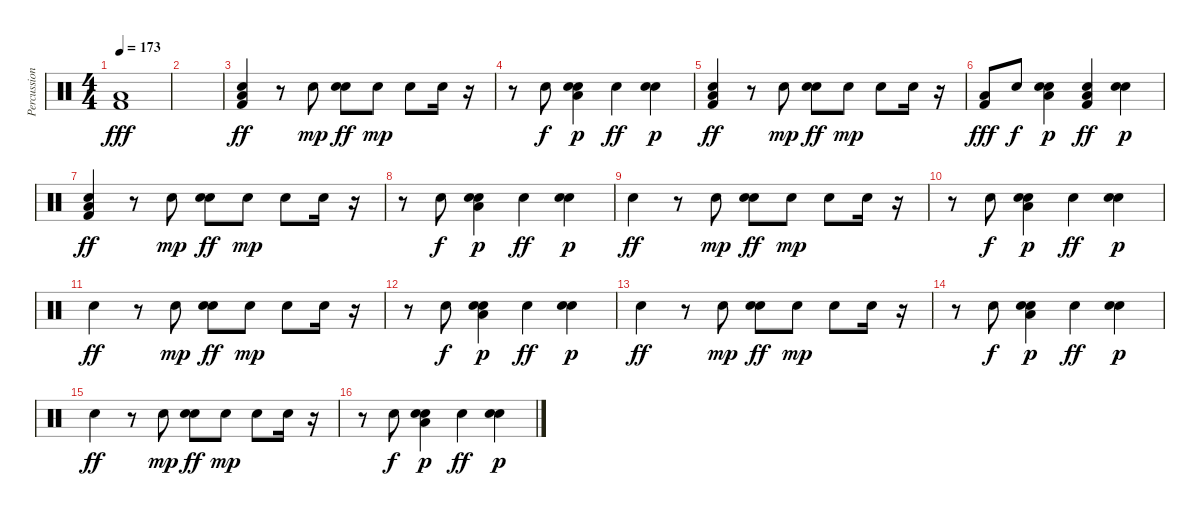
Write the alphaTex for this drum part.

\track ("Percussion" "Percussion") {instrument percussion}
\staff {score}
\articulation defaults
\ts (4 4)
\tempo 173
\clef neutral
\ks c
("Kick (hit) 2" "Low Tom (hit)").1{dy fff} |
|
("Kick (hit) 2" "Low Tom (hit)" "Hand Clap (hit)").4{dy ff} r.8 "Hand Clap (hit)".8{dy mp} ("Snare (hit) 2" "Hand Clap (hit)").8{dy ff} "Hand Clap (hit)".8{dy mp} "Hand Clap (hit)".8 "Hand Clap (hit)".16 r.16 |
r.8 "Hand Clap (hit)".8{dy f} ("Hand Clap (hit)" "Snare (hit) 2" "Low Floor Tom (hit)").4{dy p} "Hand Clap (hit)".4{dy ff} ("Snare (hit) 2" "Hand Clap (hit)").4{dy p} |
("Kick (hit) 2" "Low Tom (hit)" "Hand Clap (hit)").4{dy ff} r.8 "Hand Clap (hit)".8{dy mp} ("Snare (hit) 2" "Hand Clap (hit)").8{dy ff} "Hand Clap (hit)".8{dy mp} "Hand Clap (hit)".8 "Hand Clap (hit)".16 r.16 |
("Kick (hit) 2" "Low Tom (hit)").8{dy fff} "Hand Clap (hit)".8{dy f} ("Hand Clap (hit)" "Snare (hit) 2" "Low Floor Tom (hit)").4{dy p} ("Kick (hit) 2" "Low Tom (hit)" "Hand Clap (hit)").4{dy ff} ("Snare (hit) 2" "Hand Clap (hit)").4{dy p} |
("Kick (hit) 2" "Low Tom (hit)" "Hand Clap (hit)").4{dy ff} r.8 "Hand Clap (hit)".8{dy mp} ("Snare (hit) 2" "Hand Clap (hit)").8{dy ff} "Hand Clap (hit)".8{dy mp} "Hand Clap (hit)".8 "Hand Clap (hit)".16 r.16 |
r.8 "Hand Clap (hit)".8{dy f} ("Hand Clap (hit)" "Snare (hit) 2" "Low Floor Tom (hit)").4{dy p} "Hand Clap (hit)".4{dy ff} ("Snare (hit) 2" "Hand Clap (hit)").4{dy p} |
"Hand Clap (hit)".4{dy ff} r.8 "Hand Clap (hit)".8{dy mp} ("Snare (hit) 2" "Hand Clap (hit)").8{dy ff} "Hand Clap (hit)".8{dy mp} "Hand Clap (hit)".8 "Hand Clap (hit)".16 r.16 |
r.8 "Hand Clap (hit)".8{dy f} ("Hand Clap (hit)" "Snare (hit) 2" "Low Floor Tom (hit)").4{dy p} "Hand Clap (hit)".4{dy ff} ("Snare (hit) 2" "Hand Clap (hit)").4{dy p} |
"Hand Clap (hit)".4{dy ff} r.8 "Hand Clap (hit)".8{dy mp} ("Snare (hit) 2" "Hand Clap (hit)").8{dy ff} "Hand Clap (hit)".8{dy mp} "Hand Clap (hit)".8 "Hand Clap (hit)".16 r.16 |
r.8 "Hand Clap (hit)".8{dy f} ("Hand Clap (hit)" "Snare (hit) 2" "Low Floor Tom (hit)").4{dy p} "Hand Clap (hit)".4{dy ff} ("Snare (hit) 2" "Hand Clap (hit)").4{dy p} |
"Hand Clap (hit)".4{dy ff} r.8 "Hand Clap (hit)".8{dy mp} ("Snare (hit) 2" "Hand Clap (hit)").8{dy ff} "Hand Clap (hit)".8{dy mp} "Hand Clap (hit)".8 "Hand Clap (hit)".16 r.16 |
r.8 "Hand Clap (hit)".8{dy f} ("Hand Clap (hit)" "Snare (hit) 2" "Low Floor Tom (hit)").4{dy p} "Hand Clap (hit)".4{dy ff} ("Snare (hit) 2" "Hand Clap (hit)").4{dy p} |
"Hand Clap (hit)".4{dy ff} r.8 "Hand Clap (hit)".8{dy mp} ("Snare (hit) 2" "Hand Clap (hit)").8{dy ff} "Hand Clap (hit)".8{dy mp} "Hand Clap (hit)".8 "Hand Clap (hit)".16 r.16 |
r.8 "Hand Clap (hit)".8{dy f} ("Hand Clap (hit)" "Snare (hit) 2" "Low Floor Tom (hit)").4{dy p} "Hand Clap (hit)".4{dy ff} ("Snare (hit) 2" "Hand Clap (hit)").4{dy p}
